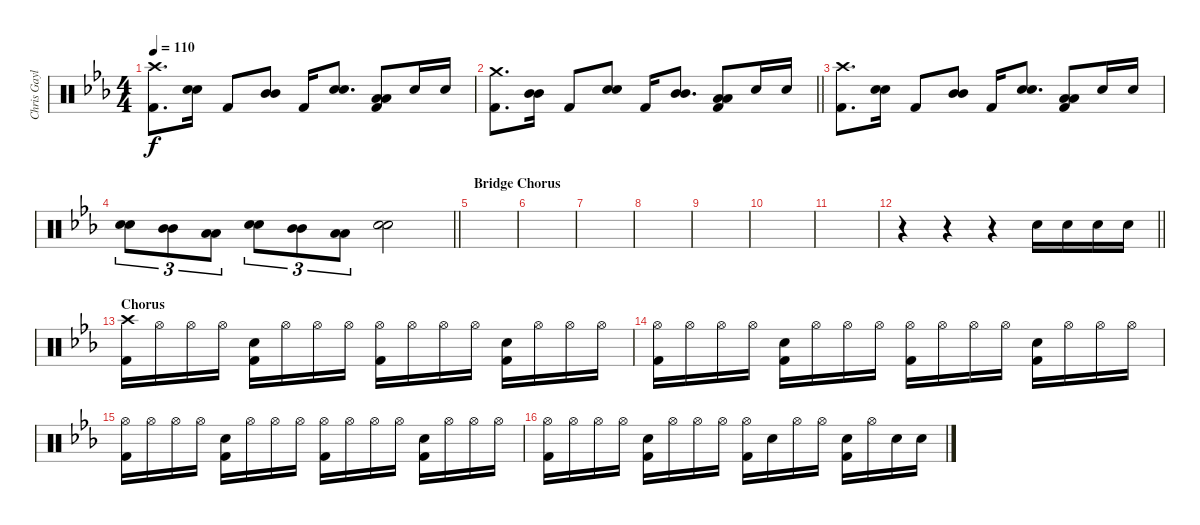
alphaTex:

\track ("Chris Gaylor (Percussion)" "Chris Gayl") {instrument percussion}
\staff {score}
\articulation defaults
\ts (4 4)
\tempo 110
\clef neutral
\ks eb
("Crash high (hit)" "Kick (hit) 2").8{d dy f} ("Electric Snare (hit)" "Electric Snare (hit)").16 "Kick (hit) 2".8 ("Mid Tom (hit)" "Mid Tom (hit)").8 "Kick (hit) 2".16 ("Electric Snare (hit)" "Electric Snare (hit)").8{d} ("Low Tom (hit)" "Low Tom (hit)" "Kick (hit) 2").8 "Electric Snare (hit)".16 "Electric Snare (hit)".16 |
\barLineRight lightlight
("Crash medium (hit)" "Kick (hit) 2").8{d} ("Mid Tom (hit)" "Mid Tom (hit)").16 "Kick (hit) 2".8 ("Electric Snare (hit)" "Electric Snare (hit)").8 "Kick (hit) 2".16 ("Mid Tom (hit)" "Mid Tom (hit)").8{d} ("Low Tom (hit)" "Low Tom (hit)" "Kick (hit) 2").8 "Electric Snare (hit)".16 "Electric Snare (hit)".16 |
("Crash high (hit)" "Kick (hit) 2").8{d} ("Electric Snare (hit)" "Electric Snare (hit)").16 "Kick (hit) 2".8 ("Mid Tom (hit)" "Mid Tom (hit)").8 "Kick (hit) 2".16 ("Electric Snare (hit)" "Electric Snare (hit)").8{d} ("Low Tom (hit)" "Low Tom (hit)" "Kick (hit) 2").8 "Electric Snare (hit)".16 "Electric Snare (hit)".16 |
\barLineRight lightlight
("Electric Snare (hit)" "Electric Snare (hit)").8{tu (3 2)} ("Mid Tom (hit)" "Mid Tom (hit)").8{tu (3 2)} ("Low Tom (hit)" "Low Tom (hit)").8{tu (3 2)} ("Electric Snare (hit)" "Electric Snare (hit)").8{tu (3 2)} ("Mid Tom (hit)" "Mid Tom (hit)").8{tu (3 2)} ("Low Tom (hit)" "Low Tom (hit)").8{tu (3 2)} ("Electric Snare (hit)" "Electric Snare (hit)").2 |
\section ("" "Bridge Chorus")
|
|
|
|
|
|
|
\barLineRight lightlight
r.4 r.4 r.4 "Electric Snare (hit)".16 "Electric Snare (hit)".16 "Electric Snare (hit)".16 "Electric Snare (hit)".16 |
\section ("" "Chorus")
("Crash high (hit)" "Kick (hit) 2").16 "Hi-Hat (open)".16 "Hi-Hat (open)".16 "Hi-Hat (open)".16 ("Electric Snare (hit)" "Kick (hit) 2").16 "Hi-Hat (open)".16 "Hi-Hat (open)".16 "Hi-Hat (open)".16 ("Hi-Hat (open)" "Kick (hit) 2").16 "Hi-Hat (open)".16 "Hi-Hat (open)".16 "Hi-Hat (open)".16 ("Electric Snare (hit)" "Kick (hit) 2").16 "Hi-Hat (open)".16 "Hi-Hat (open)".16 "Hi-Hat (open)".16 |
("Hi-Hat (open)" "Kick (hit) 2").16 "Hi-Hat (open)".16 "Hi-Hat (open)".16 "Hi-Hat (open)".16 ("Electric Snare (hit)" "Kick (hit) 2").16 "Hi-Hat (open)".16 "Hi-Hat (open)".16 "Hi-Hat (open)".16 ("Hi-Hat (open)" "Kick (hit) 2").16 "Hi-Hat (open)".16 "Hi-Hat (open)".16 "Hi-Hat (open)".16 ("Electric Snare (hit)" "Kick (hit) 2").16 "Hi-Hat (open)".16 "Hi-Hat (open)".16 "Hi-Hat (open)".16 |
("Hi-Hat (open)" "Kick (hit) 2").16 "Hi-Hat (open)".16 "Hi-Hat (open)".16 "Hi-Hat (open)".16 ("Electric Snare (hit)" "Kick (hit) 2").16 "Hi-Hat (open)".16 "Hi-Hat (open)".16 "Hi-Hat (open)".16 ("Hi-Hat (open)" "Kick (hit) 2").16 "Hi-Hat (open)".16 "Hi-Hat (open)".16 "Hi-Hat (open)".16 ("Electric Snare (hit)" "Kick (hit) 2").16 "Hi-Hat (open)".16 "Hi-Hat (open)".16 "Hi-Hat (open)".16 |
("Hi-Hat (open)" "Kick (hit) 2").16 "Hi-Hat (open)".16 "Hi-Hat (open)".16 "Hi-Hat (open)".16 ("Electric Snare (hit)" "Kick (hit) 2").16 "Hi-Hat (open)".16 "Hi-Hat (open)".16 "Hi-Hat (open)".16 ("Hi-Hat (open)" "Kick (hit) 2").16 "Electric Snare (hit)".16 "Hi-Hat (open)".16 "Hi-Hat (open)".16 ("Electric Snare (hit)" "Kick (hit) 2").16 "Hi-Hat (open)".16 "Electric Snare (hit)".16 "Electric Snare (hit)".16
